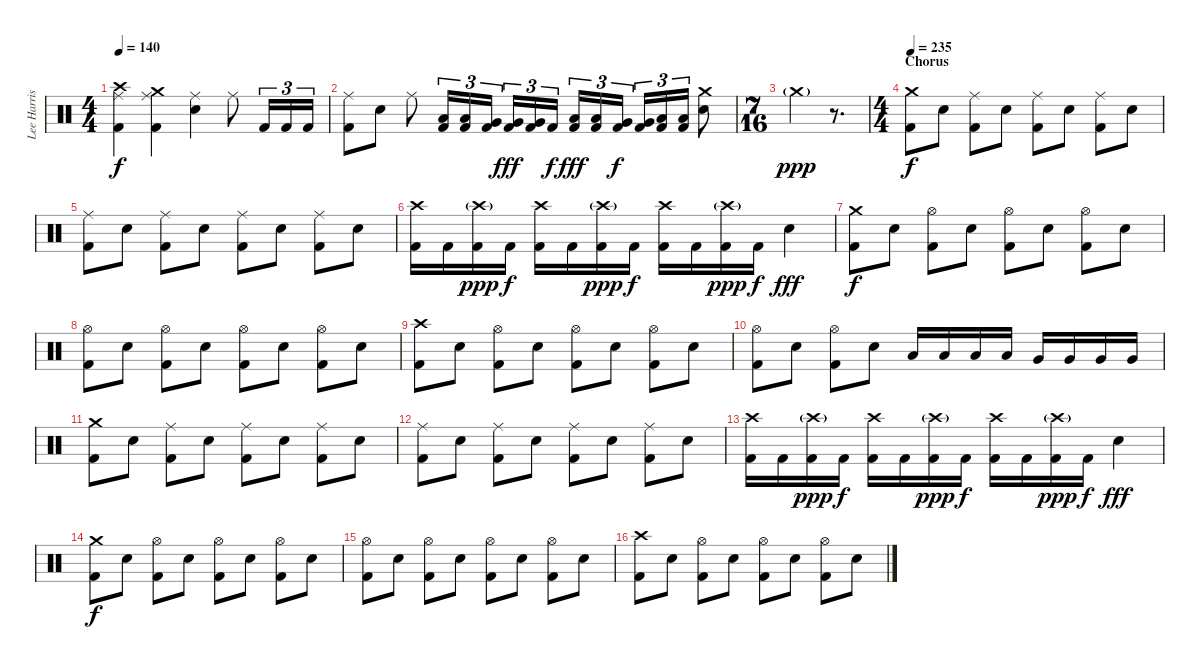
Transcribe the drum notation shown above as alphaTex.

\track ("Lee Harrison" "Lee Harris") {instrument percussion}
\staff {score}
\articulation defaults
\ts (4 4)
\tempo 140
\clef neutral
\ks c
("Crash high (hit)" "Ride (middle)" "Kick (hit) 2").4{dy f} ("Crash medium (hit)" "Ride (middle)" "Kick (hit) 2").4 ("Ride (middle)" "Electric Snare (hit)").4 "Ride (middle)".8 "Kick (hit) 2".16{tu (3 2)} "Kick (hit) 2".16{tu (3 2)} "Kick (hit) 2".16{tu (3 2)} |
("Ride (middle)" "Kick (hit) 2").8 "Electric Snare (hit)".8 "Ride (middle)".8 ("Low Tom (hit)" "Kick (hit) 2").16{tu (3 2)} ("Low Tom (hit)" "Kick (hit) 2").16{tu (3 2)} ("Very Low Tom (hit)" "Kick (hit) 2").16{tu (3 2)} ("Very Low Tom (hit)" "Kick (hit) 2").16{tu (3 2) dy fff} ("Very Low Tom (hit)" "Kick (hit) 2").16{tu (3 2)} "Kick (hit) 2".16{tu (3 2) dy f} ("Low Tom (hit)" "Kick (hit) 2").16{tu (3 2) dy fff} ("Low Tom (hit)" "Kick (hit) 2").16{tu (3 2)} ("Very Low Tom (hit)" "Kick (hit) 2").16{tu (3 2) dy f} ("Very Low Tom (hit)" "Kick (hit) 2").16{tu (3 2)} ("Low Floor Tom (hit)" "Kick (hit) 2").16{tu (3 2)} ("Low Floor Tom (hit)" "Kick (hit) 2").16{tu (3 2)} ("Crash medium (hit)" "Electric Snare (hit)").8 |
\ts (7 16)
"Crash medium (hit)"{g}.4{dy ppp} r.8{d} |
\ts (4 4)
\section ("" "Chorus")
\tempo 235
("Crash medium (hit)" "Kick (hit) 2").8{dy f} "Electric Snare (hit)".8 ("Ride (middle)" "Kick (hit) 2").8 "Electric Snare (hit)".8 ("Ride (middle)" "Kick (hit) 2").8 "Electric Snare (hit)".8 ("Ride (middle)" "Kick (hit) 2").8 "Electric Snare (hit)".8 |
("Ride (middle)" "Kick (hit) 2").8 "Electric Snare (hit)".8 ("Ride (middle)" "Kick (hit) 2").8 "Electric Snare (hit)".8 ("Ride (middle)" "Kick (hit) 2").8 "Electric Snare (hit)".8 ("Ride (middle)" "Kick (hit) 2").8 "Electric Snare (hit)".8 |
("Crash high (hit)" "Kick (hit) 2").16 "Kick (hit) 2".16 ("Crash high (hit)"{g} "Kick (hit) 2").16{dy ppp} "Kick (hit) 2".16{dy f} ("Crash high (hit)" "Kick (hit) 2").16 "Kick (hit) 2".16 ("Crash high (hit)"{g} "Kick (hit) 2").16{dy ppp} "Kick (hit) 2".16{dy f} ("Crash high (hit)" "Kick (hit) 2").16 "Kick (hit) 2".16 ("Crash high (hit)"{g} "Kick (hit) 2").16{dy ppp} "Kick (hit) 2".16{dy f} "Electric Snare (hit)".4{dy fff} |
("Crash medium (hit)" "Kick (hit) 2").8{dy f} "Electric Snare (hit)".8 ("Hi-Hat (open)" "Kick (hit) 2").8 "Electric Snare (hit)".8 ("Hi-Hat (open)" "Kick (hit) 2").8 "Electric Snare (hit)".8 ("Hi-Hat (open)" "Kick (hit) 2").8 "Electric Snare (hit)".8 |
("Hi-Hat (open)" "Kick (hit) 2").8 "Electric Snare (hit)".8 ("Hi-Hat (open)" "Kick (hit) 2").8 "Electric Snare (hit)".8 ("Hi-Hat (open)" "Kick (hit) 2").8 "Electric Snare (hit)".8 ("Hi-Hat (open)" "Kick (hit) 2").8 "Electric Snare (hit)".8 |
("Crash high (hit)" "Kick (hit) 2").8 "Electric Snare (hit)".8 ("Hi-Hat (open)" "Kick (hit) 2").8 "Electric Snare (hit)".8 ("Hi-Hat (open)" "Kick (hit) 2").8 "Electric Snare (hit)".8 ("Hi-Hat (open)" "Kick (hit) 2").8 "Electric Snare (hit)".8 |
("Hi-Hat (open)" "Kick (hit) 2").8 "Electric Snare (hit)".8 ("Hi-Hat (open)" "Kick (hit) 2").8 "Electric Snare (hit)".8 "Low Tom (hit)".16 "Low Tom (hit)".16 "Low Tom (hit)".16 "Low Tom (hit)".16 "Very Low Tom (hit)".16 "Very Low Tom (hit)".16 "Very Low Tom (hit)".16 "Very Low Tom (hit)".16 |
("Crash medium (hit)" "Kick (hit) 2").8 "Electric Snare (hit)".8 ("Ride (middle)" "Kick (hit) 2").8 "Electric Snare (hit)".8 ("Ride (middle)" "Kick (hit) 2").8 "Electric Snare (hit)".8 ("Ride (middle)" "Kick (hit) 2").8 "Electric Snare (hit)".8 |
("Ride (middle)" "Kick (hit) 2").8 "Electric Snare (hit)".8 ("Ride (middle)" "Kick (hit) 2").8 "Electric Snare (hit)".8 ("Ride (middle)" "Kick (hit) 2").8 "Electric Snare (hit)".8 ("Ride (middle)" "Kick (hit) 2").8 "Electric Snare (hit)".8 |
("Crash high (hit)" "Kick (hit) 2").16 "Kick (hit) 2".16 ("Crash high (hit)"{g} "Kick (hit) 2").16{dy ppp} "Kick (hit) 2".16{dy f} ("Crash high (hit)" "Kick (hit) 2").16 "Kick (hit) 2".16 ("Crash high (hit)"{g} "Kick (hit) 2").16{dy ppp} "Kick (hit) 2".16{dy f} ("Crash high (hit)" "Kick (hit) 2").16 "Kick (hit) 2".16 ("Crash high (hit)"{g} "Kick (hit) 2").16{dy ppp} "Kick (hit) 2".16{dy f} "Electric Snare (hit)".4{dy fff} |
("Crash medium (hit)" "Kick (hit) 2").8{dy f} "Electric Snare (hit)".8 ("Hi-Hat (open)" "Kick (hit) 2").8 "Electric Snare (hit)".8 ("Hi-Hat (open)" "Kick (hit) 2").8 "Electric Snare (hit)".8 ("Hi-Hat (open)" "Kick (hit) 2").8 "Electric Snare (hit)".8 |
("Hi-Hat (open)" "Kick (hit) 2").8 "Electric Snare (hit)".8 ("Hi-Hat (open)" "Kick (hit) 2").8 "Electric Snare (hit)".8 ("Hi-Hat (open)" "Kick (hit) 2").8 "Electric Snare (hit)".8 ("Hi-Hat (open)" "Kick (hit) 2").8 "Electric Snare (hit)".8 |
("Crash high (hit)" "Kick (hit) 2").8 "Electric Snare (hit)".8 ("Hi-Hat (open)" "Kick (hit) 2").8 "Electric Snare (hit)".8 ("Hi-Hat (open)" "Kick (hit) 2").8 "Electric Snare (hit)".8 ("Hi-Hat (open)" "Kick (hit) 2").8 "Electric Snare (hit)".8
